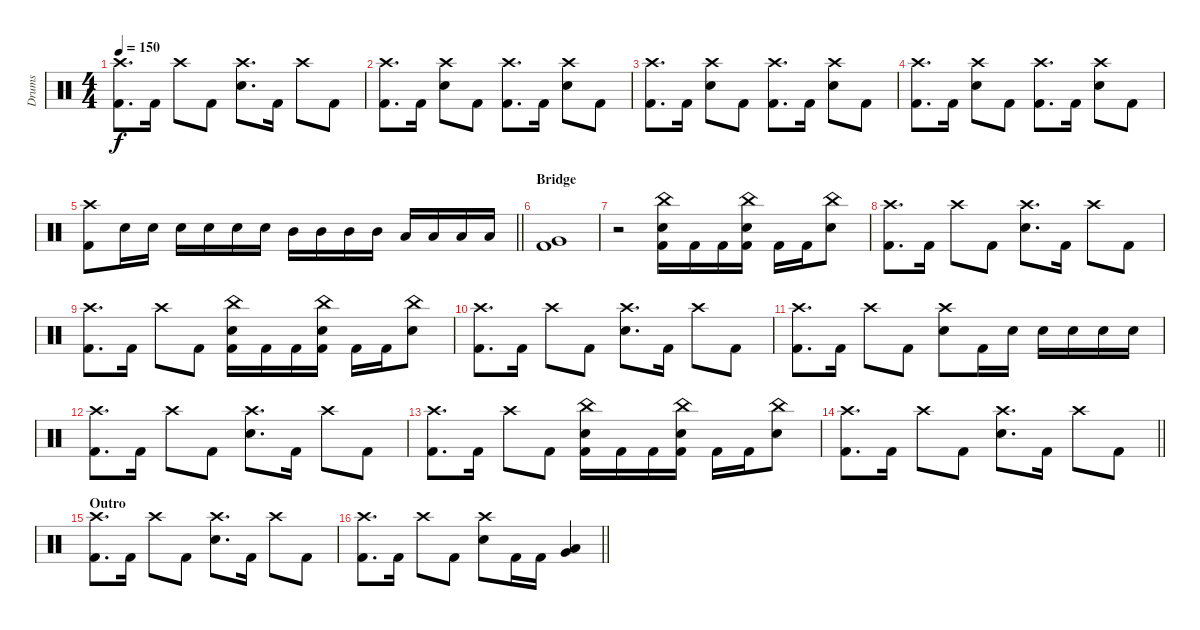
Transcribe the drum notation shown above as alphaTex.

\track ("Drums" "Drums") {instrument percussion}
\staff {score}
\articulation defaults
\ts (4 4)
\tempo 150
\clef neutral
\ks c
("Crash high (hit)" "Kick (hit) 2").8{d dy f} "Kick (hit) 2".16 "Crash high (hit)".8 "Kick (hit) 2".8 ("Crash high (hit)" "Snare (hit) 2").8{d} "Kick (hit) 2".16 "Crash high (hit)".8 "Kick (hit) 2".8 |
("Crash high (hit)" "Kick (hit) 2").8{d} "Kick (hit) 2".16 ("Crash high (hit)" "Snare (hit) 2").8 "Kick (hit) 2".8 ("Crash high (hit)" "Kick (hit) 2").8{d} "Kick (hit) 2".16 ("Crash high (hit)" "Snare (hit) 2").8 "Kick (hit) 2".8 |
("Crash high (hit)" "Kick (hit) 2").8{d} "Kick (hit) 2".16 ("Crash high (hit)" "Snare (hit) 2").8 "Kick (hit) 2".8 ("Crash high (hit)" "Kick (hit) 2").8{d} "Kick (hit) 2".16 ("Crash high (hit)" "Snare (hit) 2").8 "Kick (hit) 2".8 |
("Crash high (hit)" "Kick (hit) 2").8{d} "Kick (hit) 2".16 ("Crash high (hit)" "Snare (hit) 2").8 "Kick (hit) 2".8 ("Crash high (hit)" "Kick (hit) 2").8{d} "Kick (hit) 2".16 ("Crash high (hit)" "Snare (hit) 2").8 "Kick (hit) 2".8 |
\barLineRight lightlight
("Crash high (hit)" "Kick (hit) 2").8 "Snare (hit) 2".16 "Snare (hit) 2".16 "Snare (hit) 2".16 "Snare (hit) 2".16 "Snare (hit) 2".16 "Snare (hit) 2".16 "Mid Tom (hit)".16 "Mid Tom (hit)".16 "Mid Tom (hit)".16 "Mid Tom (hit)".16 "Low Tom (hit)".16 "Low Tom (hit)".16 "Low Tom (hit)".16 "Low Tom (hit)".16 |
\section ("" "Bridge")
("Very Low Tom (hit)" "Kick (hit) 2").1 |
r.2 ("China (hit)" "Snare (hit) 2" "Kick (hit) 2").16 "Kick (hit) 2".16 "Kick (hit) 2".16 ("China (hit)" "Snare (hit) 2" "Kick (hit) 2").16 "Kick (hit) 2".16 "Kick (hit) 2".16 ("China (hit)" "Snare (hit) 2").8 |
("Crash high (hit)" "Kick (hit) 2").8{d} "Kick (hit) 2".16 "Crash high (hit)".8 "Kick (hit) 2".8 ("Crash high (hit)" "Snare (hit) 2").8{d} "Kick (hit) 2".16 "Crash high (hit)".8 "Kick (hit) 2".8 |
("Crash high (hit)" "Kick (hit) 2").8{d} "Kick (hit) 2".16 "Crash high (hit)".8 "Kick (hit) 2".8 ("China (hit)" "Snare (hit) 2" "Kick (hit) 2").16 "Kick (hit) 2".16 "Kick (hit) 2".16 ("China (hit)" "Snare (hit) 2" "Kick (hit) 2").16 "Kick (hit) 2".16 "Kick (hit) 2".16 ("China (hit)" "Snare (hit) 2").8 |
("Crash high (hit)" "Kick (hit) 2").8{d} "Kick (hit) 2".16 "Crash high (hit)".8 "Kick (hit) 2".8 ("Crash high (hit)" "Snare (hit) 2").8{d} "Kick (hit) 2".16 "Crash high (hit)".8 "Kick (hit) 2".8 |
("Crash high (hit)" "Kick (hit) 2").8{d} "Kick (hit) 2".16 "Crash high (hit)".8 "Kick (hit) 2".8 ("Crash high (hit)" "Snare (hit) 2").8 "Kick (hit) 2".16 "Snare (hit) 2".16 "Snare (hit) 2".16 "Snare (hit) 2".16 "Snare (hit) 2".16 "Snare (hit) 2".16 |
("Crash high (hit)" "Kick (hit) 2").8{d} "Kick (hit) 2".16 "Crash high (hit)".8 "Kick (hit) 2".8 ("Crash high (hit)" "Snare (hit) 2").8{d} "Kick (hit) 2".16 "Crash high (hit)".8 "Kick (hit) 2".8 |
("Crash high (hit)" "Kick (hit) 2").8{d} "Kick (hit) 2".16 "Crash high (hit)".8 "Kick (hit) 2".8 ("China (hit)" "Snare (hit) 2" "Kick (hit) 2").16 "Kick (hit) 2".16 "Kick (hit) 2".16 ("China (hit)" "Snare (hit) 2" "Kick (hit) 2").16 "Kick (hit) 2".16 "Kick (hit) 2".16 ("China (hit)" "Snare (hit) 2").8 |
\barLineRight lightlight
("Crash high (hit)" "Kick (hit) 2").8{d} "Kick (hit) 2".16 "Crash high (hit)".8 "Kick (hit) 2".8 ("Crash high (hit)" "Snare (hit) 2").8{d} "Kick (hit) 2".16 "Crash high (hit)".8 "Kick (hit) 2".8 |
\section ("" "Outro")
("Crash high (hit)" "Kick (hit) 2").8{d} "Kick (hit) 2".16 "Crash high (hit)".8 "Kick (hit) 2".8 ("Crash high (hit)" "Snare (hit) 2").8{d} "Kick (hit) 2".16 "Crash high (hit)".8 "Kick (hit) 2".8 |
\barLineRight lightlight
("Crash high (hit)" "Kick (hit) 2").8{d} "Kick (hit) 2".16 "Crash high (hit)".8 "Kick (hit) 2".8 ("Crash high (hit)" "Snare (hit) 2").8 "Kick (hit) 2".16 "Kick (hit) 2".16 ("Low Tom (hit)" "Very Low Tom (hit)").4
